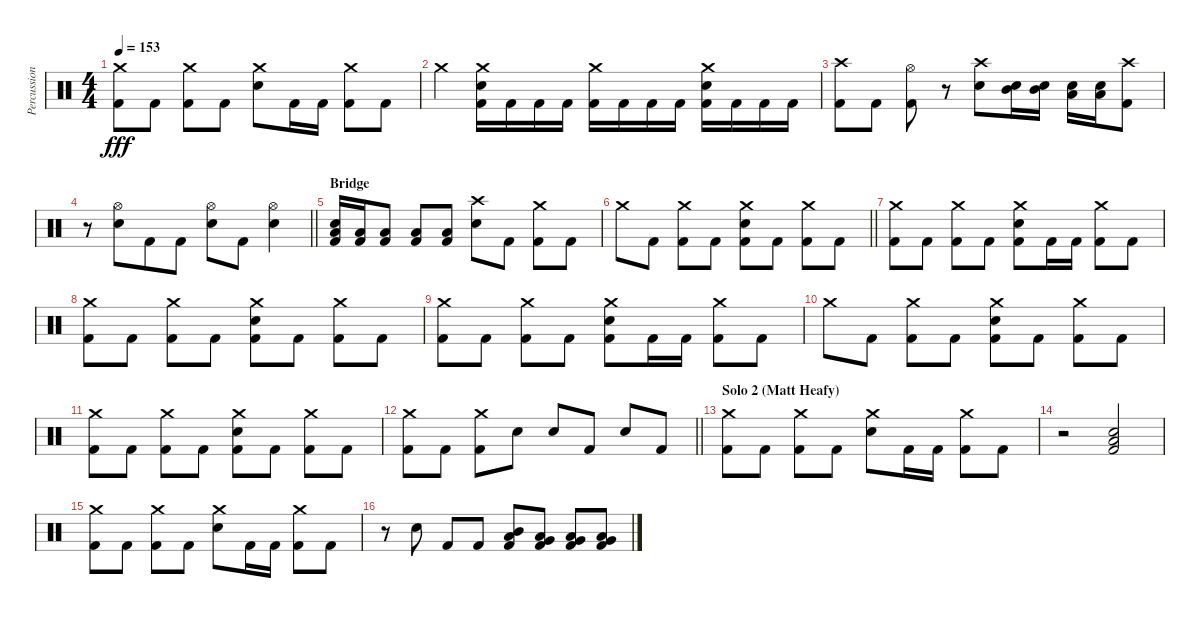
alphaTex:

\track ("Percussion" "Percussion") {instrument percussion}
\staff {score}
\articulation defaults
\ts (4 4)
\tempo 153
\clef neutral
\ks c
("Crash medium (hit)" "Kick (hit) 2").8{dy fff} "Kick (hit) 2".8 ("Crash medium (hit)" "Kick (hit) 2").8 "Kick (hit) 2".8 ("Crash medium (hit)" "Snare (hit) 2").8 "Kick (hit) 2".16 "Kick (hit) 2".16 ("Crash medium (hit)" "Kick (hit) 2").8 "Kick (hit) 2".8 |
"Crash medium (hit)".4 ("Crash medium (hit)" "Snare (hit) 2" "Kick (hit) 2").16 "Kick (hit) 2".16 "Kick (hit) 2".16 "Kick (hit) 2".16 ("Crash medium (hit)" "Kick (hit) 2").16 "Kick (hit) 2".16 "Kick (hit) 2".16 "Kick (hit) 2".16 ("Crash medium (hit)" "Snare (hit) 2" "Kick (hit) 2").16 "Kick (hit) 2".16 "Kick (hit) 2".16 "Kick (hit) 2".16 |
("Crash high (hit)" "Kick (hit) 2").8 "Kick (hit) 2".8 ("Hi-Hat (open)" "Kick (hit) 2").8 r.8{beam merge} ("Crash high (hit)" "Snare (hit) 2").8 ("Snare (hit) 2" "Mid Tom (hit)").16 ("Snare (hit) 2" "Mid Tom (hit)").16 ("Snare (hit) 2" "Low Tom (hit)").16{beam merge} ("Snare (hit) 2" "Low Tom (hit)").16 ("Crash high (hit)" "Kick (hit) 2").8 |
\barLineRight lightlight
r.8 ("Hi-Hat (open)" "Snare (hit) 2").8{beam merge} "Kick (hit) 2".8{beam merge} "Kick (hit) 2".8 ("Hi-Hat (open)" "Snare (hit) 2").8{beam merge} "Kick (hit) 2".8 ("Hi-Hat (open)" "Snare (hit) 2").4 |
\section ("" "Bridge")
("Low Floor Tom (hit)" "Snare (hit) 2" "Kick (hit) 2").16 ("Low Floor Tom (hit)" "Kick (hit) 2").16 ("Low Floor Tom (hit)" "Kick (hit) 2").8 ("Low Floor Tom (hit)" "Kick (hit) 2").8 ("Low Floor Tom (hit)" "Kick (hit) 2").8 ("Crash high (hit)" "Snare (hit) 2").8 "Kick (hit) 2".8 ("Crash medium (hit)" "Kick (hit) 2").8 "Kick (hit) 2".8 |
\barLineRight lightlight "Crash medium (hit)".8 "Kick (hit) 2".8
("Crash medium (hit)" "Kick (hit) 2").8 "Kick (hit) 2".8 ("Crash medium (hit)" "Snare (hit) 2" "Kick (hit) 2").8 "Kick (hit) 2".8 ("Crash medium (hit)" "Kick (hit) 2").8 "Kick (hit) 2".8 |
("Crash medium (hit)" "Kick (hit) 2").8 "Kick (hit) 2".8 ("Crash medium (hit)" "Kick (hit) 2").8 "Kick (hit) 2".8 ("Crash medium (hit)" "Snare (hit) 2" "Kick (hit) 2").8 "Kick (hit) 2".16 "Kick (hit) 2".16 ("Crash medium (hit)" "Kick (hit) 2").8 "Kick (hit) 2".8 |
("Crash medium (hit)" "Kick (hit) 2").8 "Kick (hit) 2".8 ("Crash medium (hit)" "Kick (hit) 2").8 "Kick (hit) 2".8 ("Crash medium (hit)" "Snare (hit) 2" "Kick (hit) 2").8 "Kick (hit) 2".8 ("Crash medium (hit)" "Kick (hit) 2").8 "Kick (hit) 2".8 |
("Crash medium (hit)" "Kick (hit) 2").8 "Kick (hit) 2".8 ("Crash medium (hit)" "Kick (hit) 2").8 "Kick (hit) 2".8 ("Crash medium (hit)" "Snare (hit) 2" "Kick (hit) 2").8 "Kick (hit) 2".16 "Kick (hit) 2".16 ("Crash medium (hit)" "Kick (hit) 2").8 "Kick (hit) 2".8 |
"Crash medium (hit)".8 "Kick (hit) 2".8 ("Crash medium (hit)" "Kick (hit) 2").8 "Kick (hit) 2".8 ("Crash medium (hit)" "Snare (hit) 2" "Kick (hit) 2").8 "Kick (hit) 2".8 ("Crash medium (hit)" "Kick (hit) 2").8 "Kick (hit) 2".8 |
("Crash medium (hit)" "Kick (hit) 2").8 "Kick (hit) 2".8 ("Crash medium (hit)" "Kick (hit) 2").8 "Kick (hit) 2".8 ("Crash medium (hit)" "Snare (hit) 2" "Kick (hit) 2").8 "Kick (hit) 2".8 ("Crash medium (hit)" "Kick (hit) 2").8 "Kick (hit) 2".8 |
\barLineRight lightlight
("Crash medium (hit)" "Kick (hit) 2").8 "Kick (hit) 2".8 ("Crash medium (hit)" "Kick (hit) 2").8 "Snare (hit) 2".8 "Snare (hit) 2".8 "Kick (hit) 2".8 "Snare (hit) 2".8 "Kick (hit) 2".8 |
\section ("" "Solo 2 (Matt Heafy)")
("Crash medium (hit)" "Kick (hit) 2").8 "Kick (hit) 2".8 ("Crash medium (hit)" "Kick (hit) 2").8 "Kick (hit) 2".8 ("Crash medium (hit)" "Snare (hit) 2").8 "Kick (hit) 2".16 "Kick (hit) 2".16 ("Crash medium (hit)" "Kick (hit) 2").8 "Kick (hit) 2".8 |
r.2 ("Low Floor Tom (hit)" "Kick (hit) 2" "Snare (hit) 2").2 |
("Crash medium (hit)" "Kick (hit) 2").8 "Kick (hit) 2".8 ("Crash medium (hit)" "Kick (hit) 2").8 "Kick (hit) 2".8 ("Crash medium (hit)" "Snare (hit) 2").8 "Kick (hit) 2".16 "Kick (hit) 2".16 ("Crash medium (hit)" "Kick (hit) 2").8 "Kick (hit) 2".8 |
r.8 "Snare (hit) 2".8 "Kick (hit) 2".8 "Kick (hit) 2".8 ("Mid Tom (hit)" "Low Tom (hit)" "Kick (hit) 2").8 ("Low Tom (hit)" "Kick (hit) 2" "Very Low Tom (hit)").8 ("Low Tom (hit)" "Very Low Tom (hit)" "Kick (hit) 2").8 ("Very Low Tom (hit)" "Kick (hit) 2" "Low Floor Tom (hit)").8
